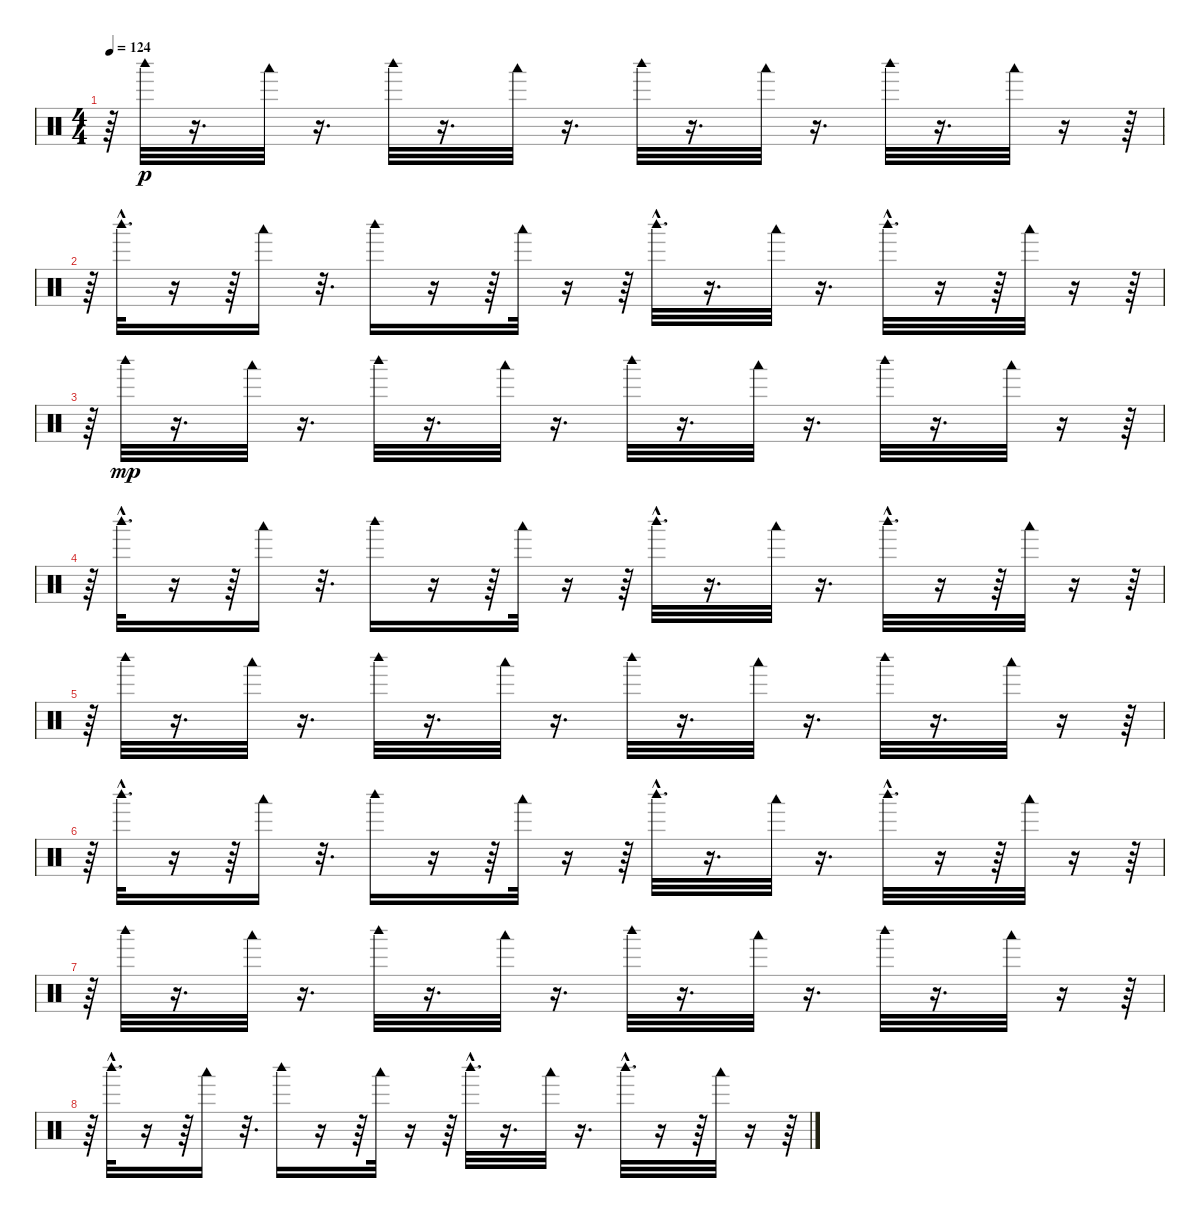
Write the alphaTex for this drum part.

\track "" {instrument percussion}
\staff {score}
\articulation defaults
\ts (4 4)
\tempo 124
\clef neutral
\ks c
r.64{dy p} "Woodblock high (hit)".32 r.16{d} "Woodblock low (hit)".32 r.16{d} "Woodblock high (hit)".32 r.16{d} "Woodblock low (hit)".32 r.16{d} "Woodblock high (hit)".32 r.16{d} "Woodblock low (hit)".32 r.16{d} "Woodblock high (hit)".32 r.16{d} "Woodblock low (hit)".32 r.16 r.64 |
r.64 "Woodblock high (hit)"{hac}.32{d} r.16 r.64 "Woodblock low (hit)".16 r.32{d} "Woodblock high (hit)".16 r.16 r.64 "Woodblock low (hit)".32 r.16 r.64 "Woodblock high (hit)"{hac}.32{d} r.16{d} "Woodblock low (hit)".32 r.16{d} "Woodblock high (hit)"{hac}.32{d} r.16 r.64 "Woodblock low (hit)".32 r.16 r.64 |
r.64 "Woodblock high (hit)".32{dy mp} r.16{d} "Woodblock low (hit)".32 r.16{d} "Woodblock high (hit)".32 r.16{d} "Woodblock low (hit)".32 r.16{d} "Woodblock high (hit)".32 r.16{d} "Woodblock low (hit)".32 r.16{d} "Woodblock high (hit)".32 r.16{d} "Woodblock low (hit)".32 r.16 r.64 |
r.64 "Woodblock high (hit)"{hac}.32{d} r.16 r.64 "Woodblock low (hit)".16 r.32{d} "Woodblock high (hit)".16 r.16 r.64 "Woodblock low (hit)".32 r.16 r.64 "Woodblock high (hit)"{hac}.32{d} r.16{d} "Woodblock low (hit)".32 r.16{d} "Woodblock high (hit)"{hac}.32{d} r.16 r.64 "Woodblock low (hit)".32 r.16 r.64 |
r.64 "Woodblock high (hit)".32 r.16{d} "Woodblock low (hit)".32 r.16{d} "Woodblock high (hit)".32 r.16{d} "Woodblock low (hit)".32 r.16{d} "Woodblock high (hit)".32 r.16{d} "Woodblock low (hit)".32 r.16{d} "Woodblock high (hit)".32 r.16{d} "Woodblock low (hit)".32 r.16 r.64 |
r.64 "Woodblock high (hit)"{hac}.32{d} r.16 r.64 "Woodblock low (hit)".16 r.32{d} "Woodblock high (hit)".16 r.16 r.64 "Woodblock low (hit)".32 r.16 r.64 "Woodblock high (hit)"{hac}.32{d} r.16{d} "Woodblock low (hit)".32 r.16{d} "Woodblock high (hit)"{hac}.32{d} r.16 r.64 "Woodblock low (hit)".32 r.16 r.64 |
r.64 "Woodblock high (hit)".32 r.16{d} "Woodblock low (hit)".32 r.16{d} "Woodblock high (hit)".32 r.16{d} "Woodblock low (hit)".32 r.16{d} "Woodblock high (hit)".32 r.16{d} "Woodblock low (hit)".32 r.16{d} "Woodblock high (hit)".32 r.16{d} "Woodblock low (hit)".32 r.16 r.64 |
r.64 "Woodblock high (hit)"{hac}.32{d} r.16 r.64 "Woodblock low (hit)".16 r.32{d} "Woodblock high (hit)".16 r.16 r.64 "Woodblock low (hit)".32 r.16 r.64 "Woodblock high (hit)"{hac}.32{d} r.16{d} "Woodblock low (hit)".32 r.16{d} "Woodblock high (hit)"{hac}.32{d} r.16 r.64 "Woodblock low (hit)".32 r.16 r.64
